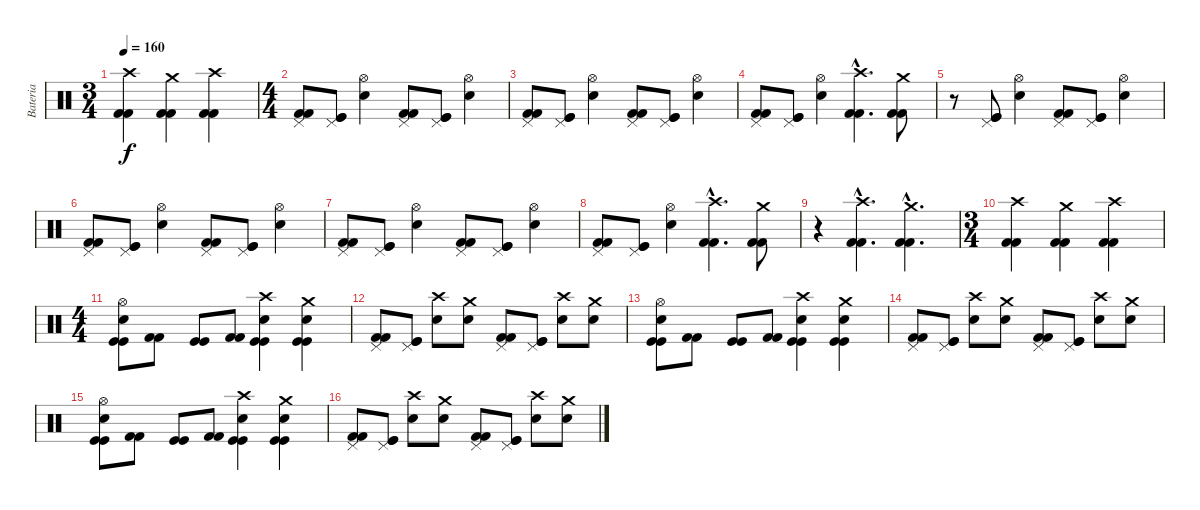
\track ("Bateria" "Bateria") {instrument percussion}
\staff {score}
\articulation defaults
\ts (3 4)
\tempo 160
\clef neutral
\ks c
("Kick (hit) 2" "Kick (hit) 2" "Crash high (hit)").4{dy f} ("Kick (hit) 2" "Kick (hit) 2" "Crash medium (hit)").4 ("Kick (hit) 2" "Kick (hit) 2" "Crash high (hit)").4 |
\ts (4 4)
("Kick (hit) 2" "Kick (hit) 2" "Pedal Hi-Hat (hit)").8 ("Kick (hit)" "Kick (hit)" "Pedal Hi-Hat (hit)").8 ("Snare (hit) 2" "Hi-Hat (open)").4 ("Kick (hit) 2" "Kick (hit) 2" "Pedal Hi-Hat (hit)").8 ("Kick (hit)" "Kick (hit)" "Pedal Hi-Hat (hit)").8 ("Snare (hit) 2" "Hi-Hat (open)").4 |
("Kick (hit) 2" "Kick (hit) 2" "Pedal Hi-Hat (hit)").8 ("Kick (hit)" "Kick (hit)" "Pedal Hi-Hat (hit)").8 ("Snare (hit) 2" "Hi-Hat (open)").4 ("Kick (hit) 2" "Kick (hit) 2" "Pedal Hi-Hat (hit)").8 ("Kick (hit)" "Kick (hit)" "Pedal Hi-Hat (hit)").8 ("Snare (hit) 2" "Hi-Hat (open)").4 |
("Kick (hit) 2" "Kick (hit) 2" "Pedal Hi-Hat (hit)").8 ("Kick (hit)" "Kick (hit)" "Pedal Hi-Hat (hit)").8 ("Snare (hit) 2" "Hi-Hat (open)").4 ("Kick (hit) 2"{hac} "Kick (hit) 2"{hac} "Crash high (hit)"{hac}).4{d} ("Kick (hit) 2" "Kick (hit) 2" "Crash medium (hit)").8 |
r.8 ("Kick (hit)" "Kick (hit)" "Pedal Hi-Hat (hit)").8 ("Snare (hit) 2" "Hi-Hat (open)").4 ("Kick (hit) 2" "Kick (hit) 2" "Pedal Hi-Hat (hit)").8 ("Kick (hit)" "Kick (hit)" "Pedal Hi-Hat (hit)").8 ("Snare (hit) 2" "Hi-Hat (open)").4 |
("Kick (hit) 2" "Kick (hit) 2" "Pedal Hi-Hat (hit)").8 ("Kick (hit)" "Kick (hit)" "Pedal Hi-Hat (hit)").8 ("Snare (hit) 2" "Hi-Hat (open)").4 ("Kick (hit) 2" "Kick (hit) 2" "Pedal Hi-Hat (hit)").8 ("Kick (hit)" "Kick (hit)" "Pedal Hi-Hat (hit)").8 ("Snare (hit) 2" "Hi-Hat (open)").4 |
("Kick (hit) 2" "Kick (hit) 2" "Pedal Hi-Hat (hit)").8 ("Kick (hit)" "Kick (hit)" "Pedal Hi-Hat (hit)").8 ("Snare (hit) 2" "Hi-Hat (open)").4 ("Kick (hit) 2" "Kick (hit) 2" "Pedal Hi-Hat (hit)").8 ("Kick (hit)" "Kick (hit)" "Pedal Hi-Hat (hit)").8 ("Snare (hit) 2" "Hi-Hat (open)").4 |
("Kick (hit) 2" "Kick (hit) 2" "Pedal Hi-Hat (hit)").8 ("Kick (hit)" "Kick (hit)" "Pedal Hi-Hat (hit)").8 ("Snare (hit) 2" "Hi-Hat (open)").4 ("Kick (hit) 2"{hac} "Kick (hit) 2"{hac} "Crash high (hit)"{hac}).4{d} ("Kick (hit) 2" "Kick (hit) 2" "Crash medium (hit)").8 |
r.4 ("Kick (hit) 2"{hac} "Kick (hit) 2"{hac} "Crash high (hit)"{hac}).4{d} ("Kick (hit) 2"{hac} "Kick (hit) 2"{hac} "Crash medium (hit)"{hac}).4{d} |
\ts (3 4)
("Kick (hit) 2" "Kick (hit) 2" "Crash high (hit)").4 ("Kick (hit) 2" "Kick (hit) 2" "Crash medium (hit)").4 ("Kick (hit) 2" "Kick (hit) 2" "Crash high (hit)").4 |
\ts (4 4)
("Kick (hit)" "Kick (hit)" "Snare (hit) 2" "Hi-Hat (open)").8 ("Kick (hit) 2" "Kick (hit) 2").8 ("Kick (hit)" "Kick (hit)").8 ("Kick (hit) 2" "Kick (hit) 2").8 ("Kick (hit)" "Kick (hit)" "Snare (hit) 2" "Crash high (hit)").4 ("Kick (hit)" "Kick (hit)" "Snare (hit) 2" "Crash medium (hit)").4 |
("Kick (hit) 2" "Kick (hit) 2" "Pedal Hi-Hat (hit)").8 ("Kick (hit)" "Kick (hit)" "Pedal Hi-Hat (hit)").8 ("Snare (hit) 2" "Crash high (hit)").8 ("Snare (hit) 2" "Crash medium (hit)").8 ("Kick (hit) 2" "Kick (hit) 2" "Pedal Hi-Hat (hit)").8 ("Kick (hit)" "Kick (hit)" "Pedal Hi-Hat (hit)").8 ("Snare (hit) 2" "Crash high (hit)").8 ("Snare (hit) 2" "Crash medium (hit)").8 |
("Kick (hit)" "Kick (hit)" "Snare (hit) 2" "Hi-Hat (open)").8 ("Kick (hit) 2" "Kick (hit) 2").8 ("Kick (hit)" "Kick (hit)").8 ("Kick (hit) 2" "Kick (hit) 2").8 ("Kick (hit)" "Kick (hit)" "Snare (hit) 2" "Crash high (hit)").4 ("Kick (hit)" "Kick (hit)" "Snare (hit) 2" "Crash medium (hit)").4 |
("Kick (hit) 2" "Kick (hit) 2" "Pedal Hi-Hat (hit)").8 ("Kick (hit)" "Kick (hit)" "Pedal Hi-Hat (hit)").8 ("Snare (hit) 2" "Crash high (hit)").8 ("Snare (hit) 2" "Crash medium (hit)").8 ("Kick (hit) 2" "Kick (hit) 2" "Pedal Hi-Hat (hit)").8 ("Kick (hit)" "Kick (hit)" "Pedal Hi-Hat (hit)").8 ("Snare (hit) 2" "Crash high (hit)").8 ("Snare (hit) 2" "Crash medium (hit)").8 |
("Kick (hit)" "Kick (hit)" "Snare (hit) 2" "Hi-Hat (open)").8 ("Kick (hit) 2" "Kick (hit) 2").8 ("Kick (hit)" "Kick (hit)").8 ("Kick (hit) 2" "Kick (hit) 2").8 ("Kick (hit)" "Kick (hit)" "Snare (hit) 2" "Crash high (hit)").4 ("Kick (hit)" "Kick (hit)" "Snare (hit) 2" "Crash medium (hit)").4 |
("Kick (hit) 2" "Kick (hit) 2" "Pedal Hi-Hat (hit)").8 ("Kick (hit)" "Kick (hit)" "Pedal Hi-Hat (hit)").8 ("Snare (hit) 2" "Crash high (hit)").8 ("Snare (hit) 2" "Crash medium (hit)").8 ("Kick (hit) 2" "Kick (hit) 2" "Pedal Hi-Hat (hit)").8 ("Kick (hit)" "Kick (hit)" "Pedal Hi-Hat (hit)").8 ("Snare (hit) 2" "Crash high (hit)").8 ("Snare (hit) 2" "Crash medium (hit)").8
